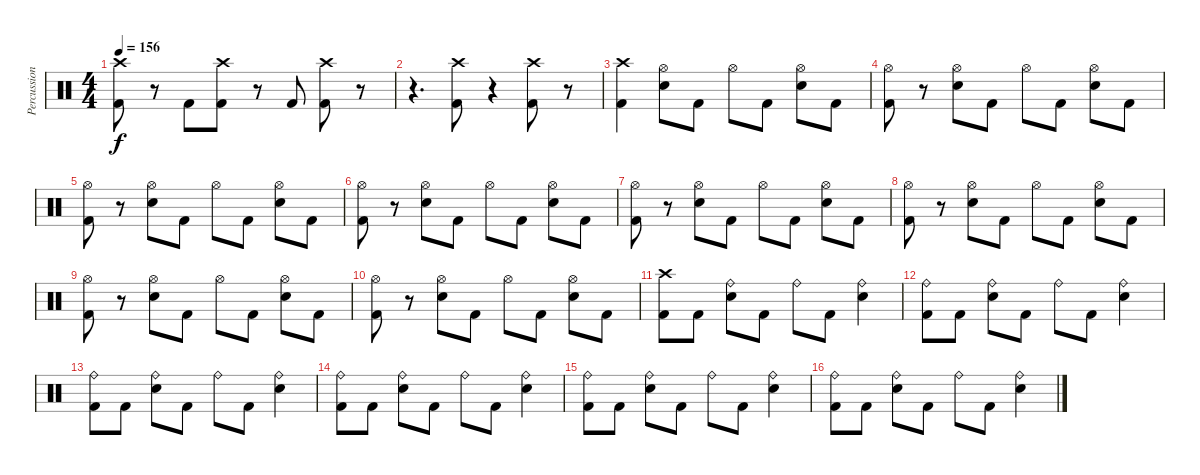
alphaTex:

\track ("Percussion" "Percussion") {instrument percussion}
\staff {score}
\articulation defaults
\ts (4 4)
\tempo 156
\clef neutral
\ks c
("Crash high (hit)" "Kick (hit) 2").8{dy f} r.8 "Kick (hit) 2".8 ("Crash high (hit)" "Kick (hit) 2").8 r.8 "Kick (hit) 2".8 ("Crash high (hit)" "Kick (hit) 2").8 r.8 |
r.4{d} ("Kick (hit) 2" "Crash high (hit)").8 r.4 ("Kick (hit) 2" "Crash high (hit)").8 r.8 |
("Crash high (hit)" "Kick (hit) 2").4 ("Hi-Hat (open)" "Snare (hit) 2").8 "Kick (hit) 2".8 "Hi-Hat (open)".8 "Kick (hit) 2".8 ("Hi-Hat (open)" "Snare (hit) 2").8 "Kick (hit) 2".8 |
("Hi-Hat (open)" "Kick (hit) 2").8 r.8 ("Hi-Hat (open)" "Snare (hit) 2").8 "Kick (hit) 2".8 "Hi-Hat (open)".8 "Kick (hit) 2".8 ("Hi-Hat (open)" "Snare (hit) 2").8 "Kick (hit) 2".8 |
("Hi-Hat (open)" "Kick (hit) 2").8 r.8 ("Hi-Hat (open)" "Snare (hit) 2").8 "Kick (hit) 2".8 "Hi-Hat (open)".8 "Kick (hit) 2".8 ("Hi-Hat (open)" "Snare (hit) 2").8 "Kick (hit) 2".8 |
("Hi-Hat (open)" "Kick (hit) 2").8 r.8 ("Hi-Hat (open)" "Snare (hit) 2").8 "Kick (hit) 2".8 "Hi-Hat (open)".8 "Kick (hit) 2".8 ("Hi-Hat (open)" "Snare (hit) 2").8 "Kick (hit) 2".8 |
("Hi-Hat (open)" "Kick (hit) 2").8 r.8 ("Hi-Hat (open)" "Snare (hit) 2").8 "Kick (hit) 2".8 "Hi-Hat (open)".8 "Kick (hit) 2".8 ("Hi-Hat (open)" "Snare (hit) 2").8 "Kick (hit) 2".8 |
("Hi-Hat (open)" "Kick (hit) 2").8 r.8 ("Hi-Hat (open)" "Snare (hit) 2").8 "Kick (hit) 2".8 "Hi-Hat (open)".8 "Kick (hit) 2".8 ("Hi-Hat (open)" "Snare (hit) 2").8 "Kick (hit) 2".8 |
("Hi-Hat (open)" "Kick (hit) 2").8 r.8 ("Hi-Hat (open)" "Snare (hit) 2").8 "Kick (hit) 2".8 "Hi-Hat (open)".8 "Kick (hit) 2".8 ("Hi-Hat (open)" "Snare (hit) 2").8 "Kick (hit) 2".8 |
("Hi-Hat (open)" "Kick (hit) 2").8 r.8 ("Hi-Hat (open)" "Snare (hit) 2").8 "Kick (hit) 2".8 "Hi-Hat (open)".8 "Kick (hit) 2".8 ("Hi-Hat (open)" "Snare (hit) 2").8 "Kick (hit) 2".8 |
("Crash high (hit)" "Kick (hit) 2").8 "Kick (hit) 2".8 ("Ride (bell)" "Snare (hit) 2").8 "Kick (hit) 2".8 "Ride (bell)".8 "Kick (hit) 2".8 ("Ride (bell)" "Snare (hit) 2").4 |
("Ride (bell)" "Kick (hit) 2").8 "Kick (hit) 2".8 ("Ride (bell)" "Snare (hit) 2").8 "Kick (hit) 2".8 "Ride (bell)".8 "Kick (hit) 2".8 ("Ride (bell)" "Snare (hit) 2").4 |
("Ride (bell)" "Kick (hit) 2").8 "Kick (hit) 2".8 ("Ride (bell)" "Snare (hit) 2").8 "Kick (hit) 2".8 "Ride (bell)".8 "Kick (hit) 2".8 ("Ride (bell)" "Snare (hit) 2").4 |
("Ride (bell)" "Kick (hit) 2").8 "Kick (hit) 2".8 ("Ride (bell)" "Snare (hit) 2").8 "Kick (hit) 2".8 "Ride (bell)".8 "Kick (hit) 2".8 ("Ride (bell)" "Snare (hit) 2").4 |
("Ride (bell)" "Kick (hit) 2").8 "Kick (hit) 2".8 ("Ride (bell)" "Snare (hit) 2").8 "Kick (hit) 2".8 "Ride (bell)".8 "Kick (hit) 2".8 ("Ride (bell)" "Snare (hit) 2").4 |
("Ride (bell)" "Kick (hit) 2").8 "Kick (hit) 2".8 ("Ride (bell)" "Snare (hit) 2").8 "Kick (hit) 2".8 "Ride (bell)".8 "Kick (hit) 2".8 ("Ride (bell)" "Snare (hit) 2").4
